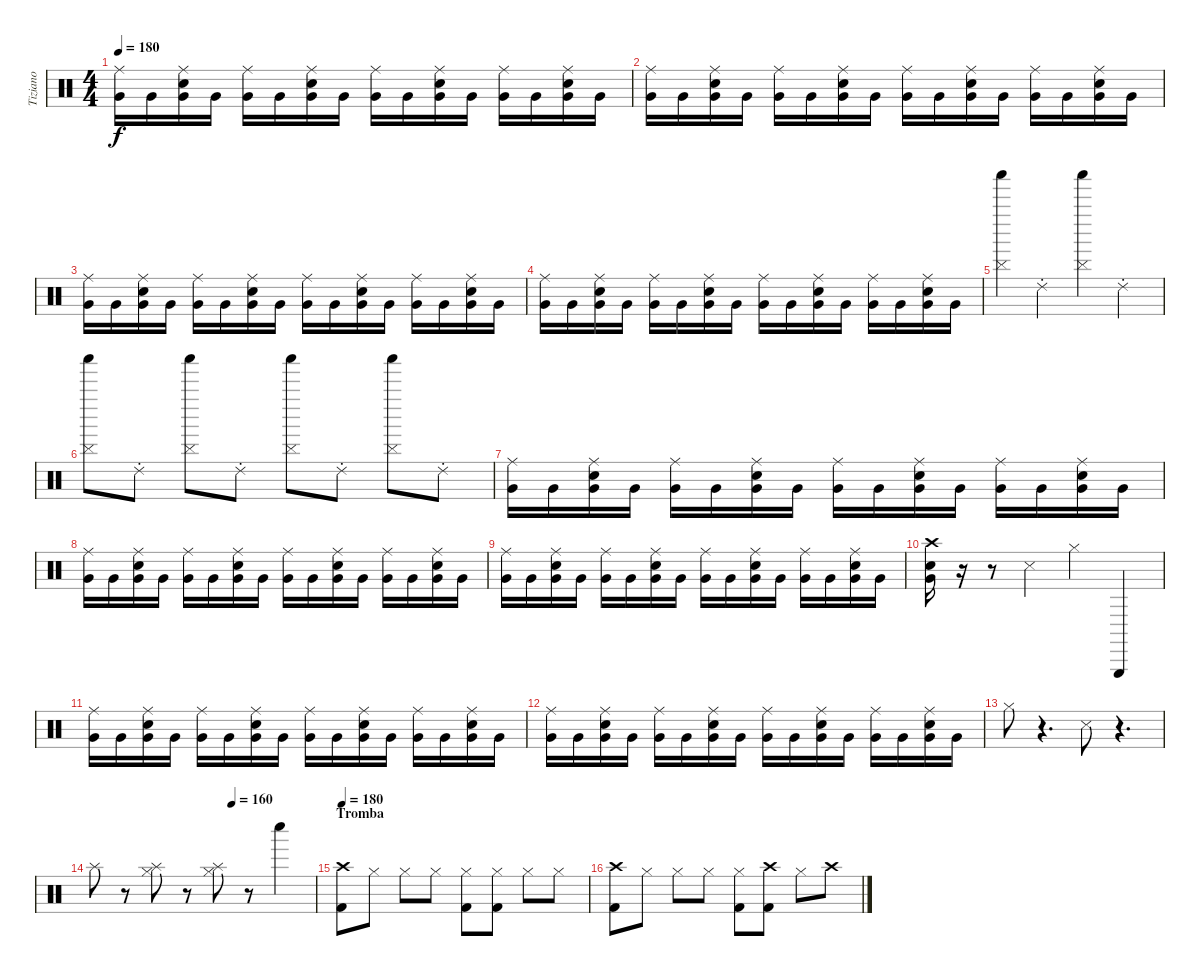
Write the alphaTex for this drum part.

\track ("Tiziano" "Tiziano") {instrument percussion}
\staff {score}
\articulation defaults
\ts (4 4)
\tempo 180
\clef neutral
\ks c
("Very Low Tom (hit)" "Ride (middle)").16{dy f} "Very Low Tom (hit)".16 ("Very Low Tom (hit)" "Snare (hit) 2" "Ride (middle)").16 "Very Low Tom (hit)".16 ("Very Low Tom (hit)" "Ride (middle)").16 "Very Low Tom (hit)".16 ("Very Low Tom (hit)" "Snare (hit) 2" "Ride (middle)").16 "Very Low Tom (hit)".16 ("Very Low Tom (hit)" "Ride (middle)").16 "Very Low Tom (hit)".16 ("Very Low Tom (hit)" "Snare (hit) 2" "Ride (middle)").16 "Very Low Tom (hit)".16 ("Very Low Tom (hit)" "Ride (middle)").16 "Very Low Tom (hit)".16 ("Very Low Tom (hit)" "Snare (hit) 2" "Ride (middle)").16 "Very Low Tom (hit)".16 |
("Very Low Tom (hit)" "Ride (middle)").16 "Very Low Tom (hit)".16 ("Very Low Tom (hit)" "Snare (hit) 2" "Ride (middle)").16 "Very Low Tom (hit)".16 ("Very Low Tom (hit)" "Ride (middle)").16 "Very Low Tom (hit)".16 ("Very Low Tom (hit)" "Snare (hit) 2" "Ride (middle)").16 "Very Low Tom (hit)".16 ("Very Low Tom (hit)" "Ride (middle)").16 "Very Low Tom (hit)".16 ("Very Low Tom (hit)" "Snare (hit) 2" "Ride (middle)").16 "Very Low Tom (hit)".16 ("Very Low Tom (hit)" "Ride (middle)").16 "Very Low Tom (hit)".16 ("Very Low Tom (hit)" "Snare (hit) 2" "Ride (middle)").16 "Very Low Tom (hit)".16 |
("Very Low Tom (hit)" "Ride (middle)").16 "Very Low Tom (hit)".16 ("Very Low Tom (hit)" "Snare (hit) 2" "Ride (middle)").16 "Very Low Tom (hit)".16 ("Very Low Tom (hit)" "Ride (middle)").16 "Very Low Tom (hit)".16 ("Very Low Tom (hit)" "Snare (hit) 2" "Ride (middle)").16 "Very Low Tom (hit)".16 ("Very Low Tom (hit)" "Ride (middle)").16 "Very Low Tom (hit)".16 ("Very Low Tom (hit)" "Snare (hit) 2" "Ride (middle)").16 "Very Low Tom (hit)".16 ("Very Low Tom (hit)" "Ride (middle)").16 "Very Low Tom (hit)".16 ("Very Low Tom (hit)" "Snare (hit) 2" "Ride (middle)").16 "Very Low Tom (hit)".16 |
("Very Low Tom (hit)" "Ride (middle)").16 "Very Low Tom (hit)".16 ("Very Low Tom (hit)" "Snare (hit) 2" "Ride (middle)").16 "Very Low Tom (hit)".16 ("Very Low Tom (hit)" "Ride (middle)").16 "Very Low Tom (hit)".16 ("Very Low Tom (hit)" "Snare (hit) 2" "Ride (middle)").16 "Very Low Tom (hit)".16 ("Very Low Tom (hit)" "Ride (middle)").16 "Very Low Tom (hit)".16 ("Very Low Tom (hit)" "Snare (hit) 2" "Ride (middle)").16 "Very Low Tom (hit)".16 ("Very Low Tom (hit)" "Ride (middle)").16 "Very Low Tom (hit)".16 ("Very Low Tom (hit)" "Snare (hit) 2" "Ride (middle)").16 "Very Low Tom (hit)".16 |
("Cymbal (hit)" "Shaker (hit)").4 "Ride (choke) 2".4 ("Cymbal (hit)" "Shaker (hit)").4 "Ride (choke) 2".4 |
("Cymbal (hit)" "Shaker (hit)").8 "Ride (choke) 2".8 ("Cymbal (hit)" "Shaker (hit)").8 "Ride (choke) 2".8 ("Cymbal (hit)" "Shaker (hit)").8 "Ride (choke) 2".8 ("Cymbal (hit)" "Shaker (hit)").8 "Ride (choke) 2".8 |
("Very Low Tom (hit)" "Ride (middle)").16 "Very Low Tom (hit)".16 ("Very Low Tom (hit)" "Snare (hit) 2" "Ride (middle)").16 "Very Low Tom (hit)".16 ("Very Low Tom (hit)" "Ride (middle)").16 "Very Low Tom (hit)".16 ("Very Low Tom (hit)" "Snare (hit) 2" "Ride (middle)").16 "Very Low Tom (hit)".16 ("Very Low Tom (hit)" "Ride (middle)").16 "Very Low Tom (hit)".16 ("Very Low Tom (hit)" "Snare (hit) 2" "Ride (middle)").16 "Very Low Tom (hit)".16 ("Very Low Tom (hit)" "Ride (middle)").16 "Very Low Tom (hit)".16 ("Very Low Tom (hit)" "Snare (hit) 2" "Ride (middle)").16 "Very Low Tom (hit)".16 |
("Very Low Tom (hit)" "Ride (middle)").16 "Very Low Tom (hit)".16 ("Very Low Tom (hit)" "Snare (hit) 2" "Ride (middle)").16 "Very Low Tom (hit)".16 ("Very Low Tom (hit)" "Ride (middle)").16 "Very Low Tom (hit)".16 ("Very Low Tom (hit)" "Snare (hit) 2" "Ride (middle)").16 "Very Low Tom (hit)".16 ("Very Low Tom (hit)" "Ride (middle)").16 "Very Low Tom (hit)".16 ("Very Low Tom (hit)" "Snare (hit) 2" "Ride (middle)").16 "Very Low Tom (hit)".16 ("Very Low Tom (hit)" "Ride (middle)").16 "Very Low Tom (hit)".16 ("Very Low Tom (hit)" "Snare (hit) 2" "Ride (middle)").16 "Very Low Tom (hit)".16 |
("Very Low Tom (hit)" "Ride (middle)").16 "Very Low Tom (hit)".16 ("Very Low Tom (hit)" "Snare (hit) 2" "Ride (middle)").16 "Very Low Tom (hit)".16 ("Very Low Tom (hit)" "Ride (middle)").16 "Very Low Tom (hit)".16 ("Very Low Tom (hit)" "Snare (hit) 2" "Ride (middle)").16 "Very Low Tom (hit)".16 ("Very Low Tom (hit)" "Ride (middle)").16 "Very Low Tom (hit)".16 ("Very Low Tom (hit)" "Snare (hit) 2" "Ride (middle)").16 "Very Low Tom (hit)".16 ("Very Low Tom (hit)" "Ride (middle)").16 "Very Low Tom (hit)".16 ("Very Low Tom (hit)" "Snare (hit) 2" "Ride (middle)").16 "Very Low Tom (hit)".16 |
("Very Low Tom (hit)" "Snare (hit) 2" "Crash high (hit)").16 r.16 r.8 "Snare (side stick) 3".4 "Hi-Hat (closed)".4 "Triangle (hit)".4 |
("Very Low Tom (hit)" "Ride (middle)").16 "Very Low Tom (hit)".16 ("Very Low Tom (hit)" "Snare (hit) 2" "Ride (middle)").16 "Very Low Tom (hit)".16 ("Very Low Tom (hit)" "Ride (middle)").16 "Very Low Tom (hit)".16 ("Very Low Tom (hit)" "Snare (hit) 2" "Ride (middle)").16 "Very Low Tom (hit)".16 ("Very Low Tom (hit)" "Ride (middle)").16 "Very Low Tom (hit)".16 ("Very Low Tom (hit)" "Snare (hit) 2" "Ride (middle)").16 "Very Low Tom (hit)".16 ("Very Low Tom (hit)" "Ride (middle)").16 "Very Low Tom (hit)".16 ("Very Low Tom (hit)" "Snare (hit) 2" "Ride (middle)").16 "Very Low Tom (hit)".16 |
("Very Low Tom (hit)" "Ride (middle)").16 "Very Low Tom (hit)".16 ("Very Low Tom (hit)" "Snare (hit) 2" "Ride (middle)").16 "Very Low Tom (hit)".16 ("Very Low Tom (hit)" "Ride (middle)").16 "Very Low Tom (hit)".16 ("Very Low Tom (hit)" "Snare (hit) 2" "Ride (middle)").16 "Very Low Tom (hit)".16 ("Very Low Tom (hit)" "Ride (middle)").16 "Very Low Tom (hit)".16 ("Very Low Tom (hit)" "Snare (hit) 2" "Ride (middle)").16 "Very Low Tom (hit)".16 ("Very Low Tom (hit)" "Ride (middle)").16 "Very Low Tom (hit)".16 ("Very Low Tom (hit)" "Snare (hit) 2" "Ride (middle)").16 "Very Low Tom (hit)".16 |
"Hi-Hat (closed)".8 r.4{d} "Snare (side stick) 3".8 r.4{d} |
\tempo (160 0.625)
"Splash (hit)".8 r.8 ("Splash (hit)" "Hi-Hat (closed)").8 r.8 ("Splash (hit)" "Hi-Hat (closed)").8 r.8 "Whistle low (hit)".4 |
\section ("" "Tromba")
\tempo 180
("Crash high (hit)" "Kick (hit) 2").8 "Hi-Hat (closed)".8 "Hi-Hat (closed)".8 "Hi-Hat (closed)".8 ("Hi-Hat (closed)" "Kick (hit) 2").8 ("Hi-Hat (closed)" "Kick (hit) 2").8 "Hi-Hat (closed)".8 "Hi-Hat (closed)".8 |
("Crash high (hit)" "Kick (hit) 2").8 "Hi-Hat (closed)".8 "Hi-Hat (closed)".8 "Hi-Hat (closed)".8 ("Hi-Hat (closed)" "Kick (hit) 2").8 ("Crash high (hit)" "Kick (hit) 2").8 "Hi-Hat (closed)".8 "Crash high (hit)".8
